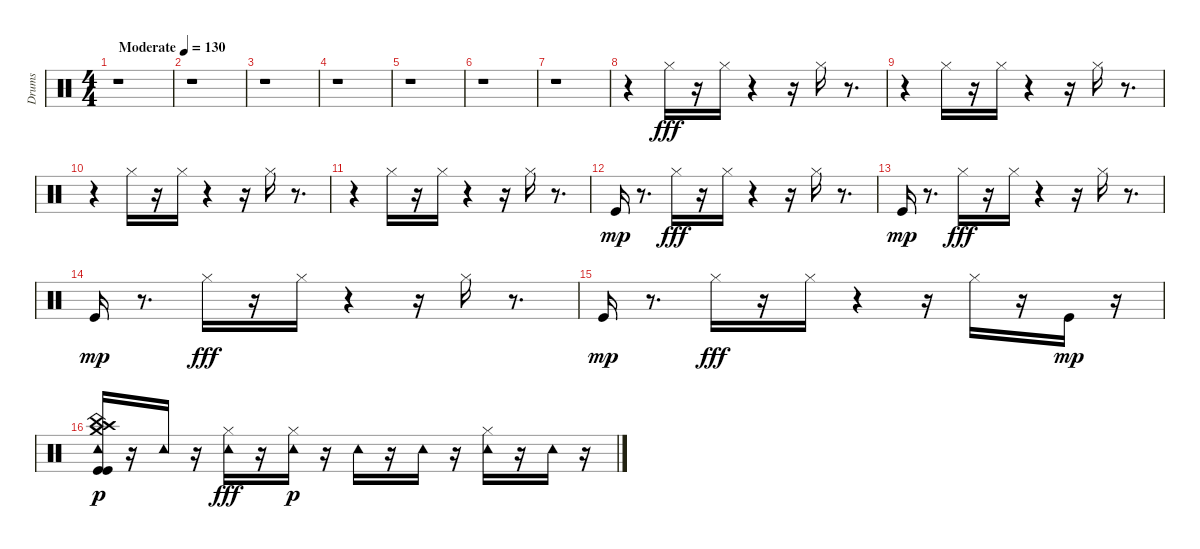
\track ("Drums" "Drums") {instrument percussion}
\staff {score}
\articulation defaults
\ts (4 4)
\tempo (130 "Moderate")
\clef neutral
\ks c
r.1{dy fff} |
r.1 |
r.1 |
r.1 |
r.1 |
r.1 |
r.1 |
r.4 "Hi-Hat (closed)".16 r.16 "Hi-Hat (closed)".16 r.4 r.16 "Hi-Hat (closed)".16 r.8{d} |
r.4 "Hi-Hat (closed)".16 r.16 "Hi-Hat (closed)".16 r.4 r.16 "Hi-Hat (closed)".16 r.8{d} |
r.4 "Hi-Hat (closed)".16 r.16 "Hi-Hat (closed)".16 r.4 r.16 "Hi-Hat (closed)".16 r.8{d} |
r.4 "Hi-Hat (closed)".16 r.16 "Hi-Hat (closed)".16 r.4 r.16 "Hi-Hat (closed)".16 r.8{d} |
"Kick (hit)".16{dy mp} r.8{d} "Hi-Hat (closed)".16{dy fff} r.16 "Hi-Hat (closed)".16 r.4 r.16 "Hi-Hat (closed)".16 r.8{d} |
"Kick (hit)".16{dy mp} r.8{d} "Hi-Hat (closed)".16{dy fff} r.16 "Hi-Hat (closed)".16 r.4 r.16 "Hi-Hat (closed)".16 r.8{d} |
"Kick (hit)".16{dy mp} r.8{d} "Hi-Hat (closed)".16{dy fff} r.16 "Hi-Hat (closed)".16 r.4 r.16 "Hi-Hat (closed)".16 r.8{d} |
"Kick (hit)".16{dy mp} r.8{d} "Hi-Hat (closed)".16{dy fff} r.16 "Hi-Hat (closed)".16 r.4 r.16 "Hi-Hat (closed)".16 r.16 "Kick (hit)".16{dy mp} r.16 |
("Crash high (hit)" "China (hit)" "Crash medium (hit)" "Kick (hit)" "Kick (hit)" "Tambourine (hit)").16{dy p} r.16 "Tambourine (hit)".16 r.16 ("Tambourine (hit)" "Hi-Hat (closed)").16{dy fff} r.16 ("Hi-Hat (closed)" "Tambourine (hit)").16{dy p} r.16 "Tambourine (hit)".16 r.16 "Tambourine (hit)".16 r.16 ("Hi-Hat (closed)" "Tambourine (hit)").16 r.16 "Tambourine (hit)".16 r.16
